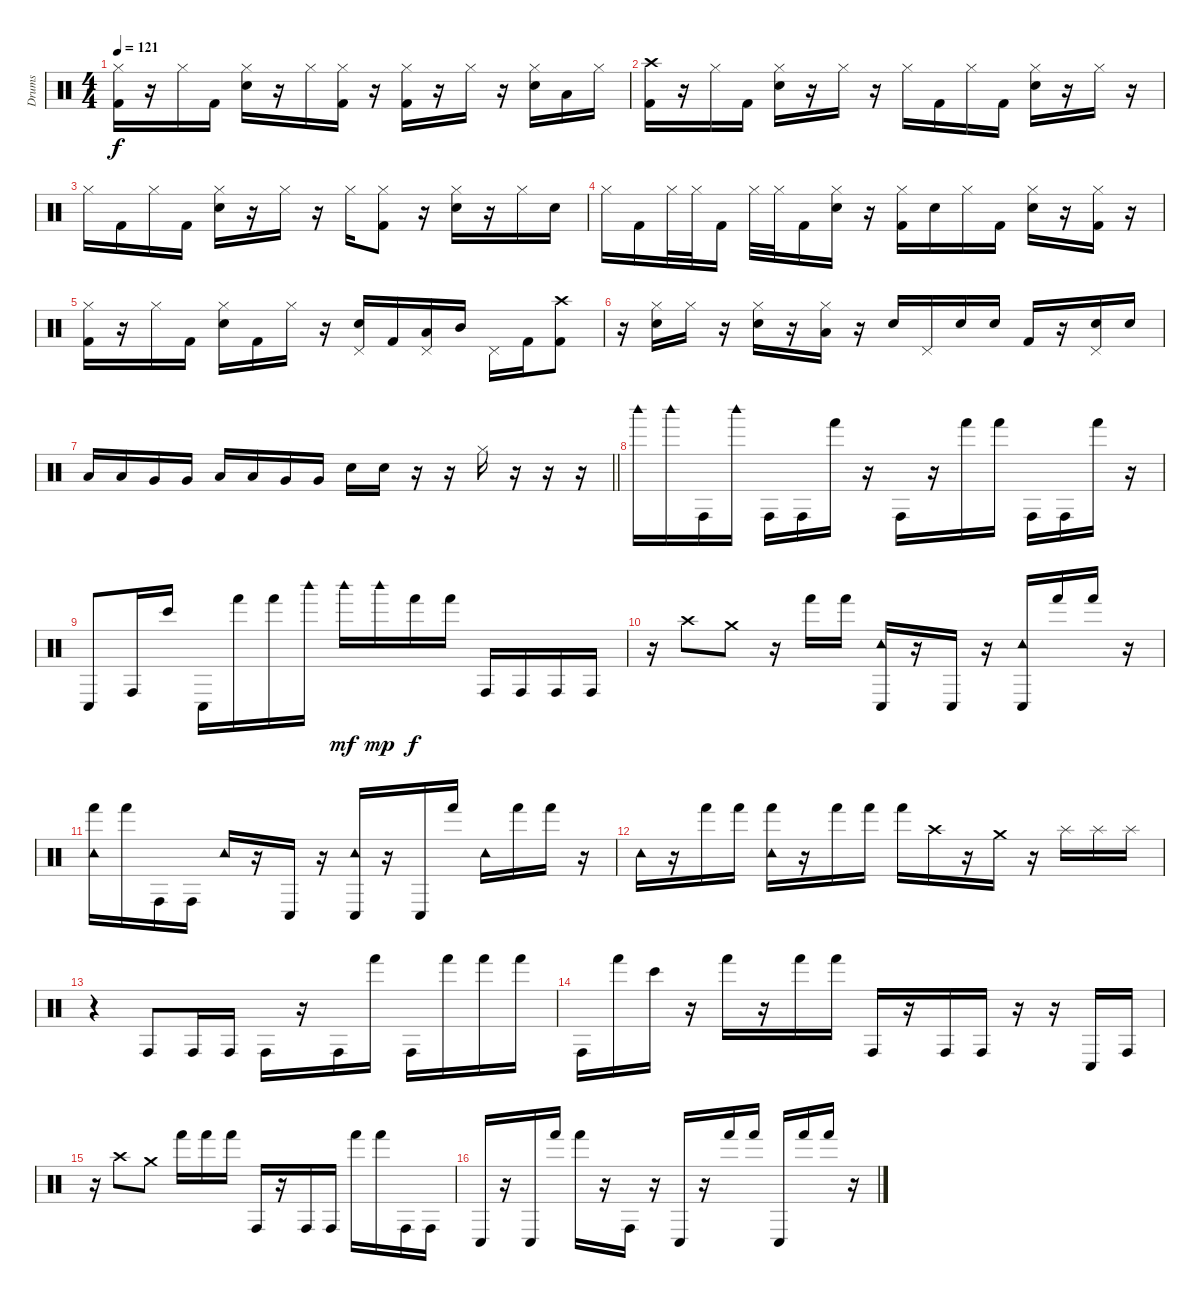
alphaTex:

\track ("Drums" "Drums") {instrument percussion}
\staff {score}
\articulation defaults
\ts (4 4)
\tempo 121
\clef neutral
\ks c
("Hi-Hat (closed)" "Kick (hit) 2").16{dy f} r.16 "Hi-Hat (closed)".16 "Kick (hit) 2".16 ("Hi-Hat (closed)" "Snare (hit) 2").16 r.16 "Hi-Hat (closed)".16 ("Hi-Hat (closed)" "Kick (hit) 2").16 r.16 ("Hi-Hat (closed)" "Kick (hit) 2").16 r.16 "Hi-Hat (closed)".16 r.16 ("Hi-Hat (closed)" "Snare (hit) 2").16 "Low Tom (hit)".16 "Hi-Hat (closed)".16 |
("Crash high (hit)" "Kick (hit) 2").16 r.16 "Hi-Hat (closed)".16 "Kick (hit) 2".16 ("Hi-Hat (closed)" "Snare (hit) 2").16 r.16 "Hi-Hat (closed)".16 r.16 "Hi-Hat (closed)".16 "Kick (hit) 2".16 "Hi-Hat (closed)".16 "Kick (hit) 2".16 ("Hi-Hat (closed)" "Snare (hit) 2").16 r.16 "Hi-Hat (closed)".16 r.16 |
"Hi-Hat (closed)".16 "Kick (hit) 2".16 "Hi-Hat (closed)".16 "Kick (hit) 2".16 ("Hi-Hat (closed)" "Snare (hit) 2").16 r.16 "Hi-Hat (closed)".16 r.16 "Hi-Hat (closed)".16 ("Hi-Hat (closed)" "Kick (hit) 2").8 r.16 ("Hi-Hat (closed)" "Snare (hit) 2").16 r.16 "Hi-Hat (closed)".16 "Snare (hit) 2".16 |
"Hi-Hat (closed)".16 "Kick (hit) 2".16 "Hi-Hat (closed)".32 "Hi-Hat (closed)".32 "Kick (hit) 2".16 "Hi-Hat (closed)".32 "Hi-Hat (closed)".32 "Kick (hit) 2".16 ("Hi-Hat (closed)" "Snare (hit) 2").16 r.16 ("Hi-Hat (closed)" "Kick (hit) 2").16 "Snare (hit) 2".16 "Hi-Hat (closed)".16 "Kick (hit) 2".16 ("Hi-Hat (closed)" "Snare (hit) 2").16 r.16 ("Hi-Hat (closed)" "Kick (hit) 2").16 r.16 |
("Hi-Hat (closed)" "Kick (hit) 2").16 r.16 "Hi-Hat (closed)".16 "Kick (hit) 2".16 ("Hi-Hat (closed)" "Snare (hit) 2").16 "Kick (hit) 2".16 "Hi-Hat (closed)".16 r.16 ("Pedal Hi-Hat (hit)" "Snare (hit) 2").16 "Kick (hit) 2".16 ("Pedal Hi-Hat (hit)" "Low Tom (hit)").16 "Mid Tom (hit)".16 "Pedal Hi-Hat (hit)".16 "Kick (hit) 2".16 ("Crash high (hit)" "Kick (hit) 2").8 |
r.16 ("Hi-Hat (closed)" "Snare (hit) 2").16 "Hi-Hat (closed)".16 r.16 ("Hi-Hat (closed)" "Snare (hit) 2").16 r.16 ("Hi-Hat (closed)" "Low Tom (hit)").16 r.16 "Snare (hit) 2".16 "Pedal Hi-Hat (hit)".16 "Snare (hit) 2".16 "Snare (hit) 2".16 "Kick (hit) 2".16 r.16 ("Pedal Hi-Hat (hit)" "Snare (hit) 2").16 "Snare (hit) 2".16 |
\barLineRight lightlight "Low Tom (hit)".16 "Low Tom (hit)".16 "Very Low Tom (hit)".16 "Very Low Tom (hit)".16 "Low Tom (hit)".16 "Low Tom (hit)".16 "Very Low Tom (hit)".16 "Very Low Tom (hit)".16 "Snare (hit) 2".16 "Snare (hit) 2".16
r.16 r.16 "Hi-Hat (closed)".16 r.16 r.16 r.16 |
\section ("" "")
"Woodblock high (hit)".16 "Woodblock high (hit)".16 "Conga high (hit)".16 "Woodblock high (hit)".16 "Conga high (hit)".16 "Conga high (hit)".16 "Hand (hit)".16 r.16 "Conga high (hit)".16 r.16 "Hand (hit)".16 "Hand (hit)".16 "Conga high (hit)".16 "Conga high (hit)".16 "Hand (hit)".16 r.16 |
"Conga low (hit)".8 "Conga high (hit)".16 "Bongo High (hit)".16 "Conga low (hit)".16 "Hand (hit)".16 "Hand (hit)".16 "Woodblock high (hit)".16 "Woodblock high (hit)".16{dy mf} "Woodblock high (hit)".16{dy mp} "Hand (hit)".16{dy f} "Hand (hit)".16 "Conga high (hit)".16 "Conga high (hit)".16 "Conga high (hit)".16 "Conga high (hit)".16 |
r.16 "Crash high (hit)".8 "Crash medium (hit)".8 r.16 "Hand (hit)".16 "Hand (hit)".16 ("Tambourine (hit)" "Conga low (hit)").16 r.16 "Conga low (hit)".16 r.16 ("Tambourine (hit)" "Conga low (hit)").16 "Hand (hit)".16 "Hand (hit)".16 r.16 |
("Tambourine (hit)" "Hand (hit)").16 "Hand (hit)".16 "Conga high (hit)".16 "Conga high (hit)".16 "Tambourine (hit)".16 r.16 "Conga low (hit)".16 r.16 ("Tambourine (hit)" "Conga low (hit)").16 r.16 "Conga low (hit)".16 "Hand (hit)".16 "Tambourine (hit)".16 "Hand (hit)".16 "Hand (hit)".16 r.16 |
"Tambourine (hit)".16 r.16 "Hand (hit)".16 "Hand (hit)".16 ("Tambourine (hit)" "Hand (hit)").16 r.16 "Hand (hit)".16 "Hand (hit)".16 "Hand (hit)".16 "Crash high (hit)".16 r.16 "Crash medium (hit)".16 r.16 "Splash (hit)".16 "Splash (hit)".16 "Splash (hit)".16 |
r.4 "Conga high (hit)".8 "Conga high (hit)".16 "Conga high (hit)".16 "Conga high (hit)".16 r.16 "Conga high (hit)".16 "Hand (hit)".16 "Conga high (hit)".16 "Hand (hit)".16 "Hand (hit)".16 "Hand (hit)".16 |
"Conga high (hit)".16 "Hand (hit)".16 "Bongo High (hit)".16 r.16 "Hand (hit)".16 r.16 "Hand (hit)".16 "Hand (hit)".16 "Conga high (hit)".16 r.16 "Conga high (hit)".16 "Conga high (hit)".16 r.16 r.16 "Conga low (hit)".16 "Conga high (hit)".16 |
r.16 "Crash high (hit)".8 "Crash medium (hit)".8 "Hand (hit)".16 "Hand (hit)".16 "Hand (hit)".16 "Conga high (hit)".16 r.16 "Conga high (hit)".16 "Conga high (hit)".16 "Hand (hit)".16 "Hand (hit)".16 "Conga high (hit)".16 "Conga high (hit)".16 |
"Conga low (hit)".16 r.16 "Conga low (hit)".16 "Hand (hit)".16 "Hand (hit)".16 r.16 "Conga high (hit)".16 r.16 "Conga low (hit)".16 r.16 "Hand (hit)".16 "Hand (hit)".16 "Conga low (hit)".16 "Hand (hit)".16 "Hand (hit)".16 r.16
